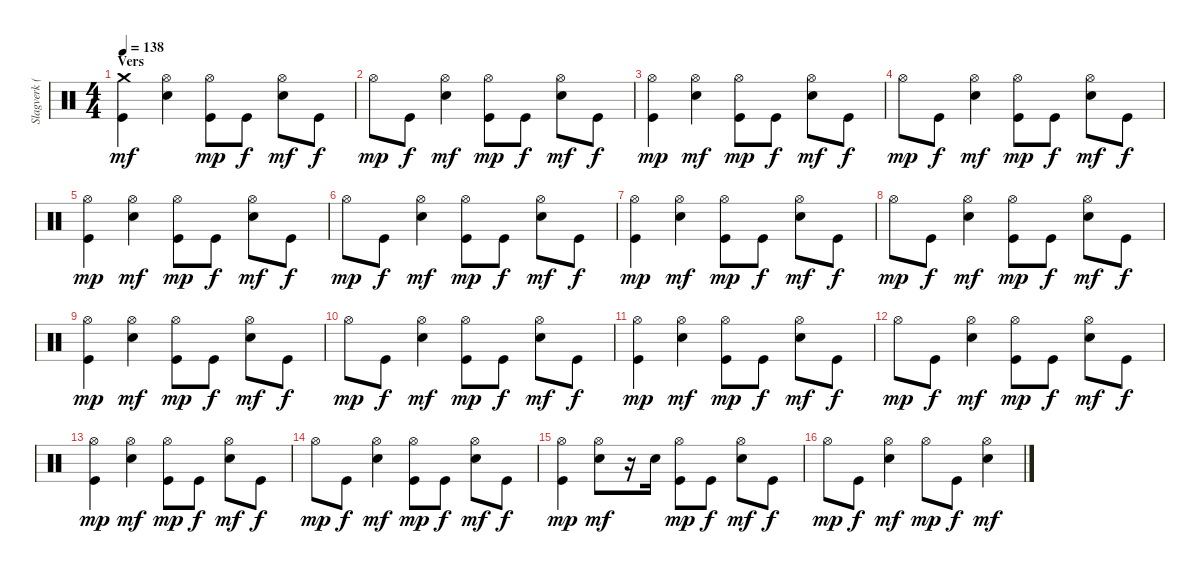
\track ("Slagverk (Jan Kristiansen)" "Slagverk (") {instrument percussion}
\staff {score}
\articulation defaults
\ts (4 4)
\section ("" "Vers")
\tempo 138
\clef neutral
\ks c
("Crash medium (hit)" "Kick (hit)").4{dy mf} ("Hi-Hat (open)" "Snare (hit) 2").4 ("Hi-Hat (open)" "Kick (hit)").8{dy mp} "Kick (hit)".8{dy f} ("Hi-Hat (open)" "Snare (hit) 2").8{dy mf} "Kick (hit)".8{dy f} |
"Hi-Hat (open)".8{dy mp} "Kick (hit)".8{dy f} ("Hi-Hat (open)" "Snare (hit) 2").4{dy mf} ("Hi-Hat (open)" "Kick (hit)").8{dy mp} "Kick (hit)".8{dy f} ("Hi-Hat (open)" "Snare (hit) 2").8{dy mf} "Kick (hit)".8{dy f} |
("Hi-Hat (open)" "Kick (hit)").4{dy mp} ("Hi-Hat (open)" "Snare (hit) 2").4{dy mf} ("Hi-Hat (open)" "Kick (hit)").8{dy mp} "Kick (hit)".8{dy f} ("Hi-Hat (open)" "Snare (hit) 2").8{dy mf} "Kick (hit)".8{dy f} |
"Hi-Hat (open)".8{dy mp} "Kick (hit)".8{dy f} ("Hi-Hat (open)" "Snare (hit) 2").4{dy mf} ("Hi-Hat (open)" "Kick (hit)").8{dy mp} "Kick (hit)".8{dy f} ("Hi-Hat (open)" "Snare (hit) 2").8{dy mf} "Kick (hit)".8{dy f} |
("Hi-Hat (open)" "Kick (hit)").4{dy mp} ("Hi-Hat (open)" "Snare (hit) 2").4{dy mf} ("Hi-Hat (open)" "Kick (hit)").8{dy mp} "Kick (hit)".8{dy f} ("Hi-Hat (open)" "Snare (hit) 2").8{dy mf} "Kick (hit)".8{dy f} |
"Hi-Hat (open)".8{dy mp} "Kick (hit)".8{dy f} ("Hi-Hat (open)" "Snare (hit) 2").4{dy mf} ("Hi-Hat (open)" "Kick (hit)").8{dy mp} "Kick (hit)".8{dy f} ("Hi-Hat (open)" "Snare (hit) 2").8{dy mf} "Kick (hit)".8{dy f} |
("Hi-Hat (open)" "Kick (hit)").4{dy mp} ("Hi-Hat (open)" "Snare (hit) 2").4{dy mf} ("Hi-Hat (open)" "Kick (hit)").8{dy mp} "Kick (hit)".8{dy f} ("Hi-Hat (open)" "Snare (hit) 2").8{dy mf} "Kick (hit)".8{dy f} |
"Hi-Hat (open)".8{dy mp} "Kick (hit)".8{dy f} ("Hi-Hat (open)" "Snare (hit) 2").4{dy mf} ("Hi-Hat (open)" "Kick (hit)").8{dy mp} "Kick (hit)".8{dy f} ("Hi-Hat (open)" "Snare (hit) 2").8{dy mf} "Kick (hit)".8{dy f} |
("Hi-Hat (open)" "Kick (hit)").4{dy mp} ("Hi-Hat (open)" "Snare (hit) 2").4{dy mf} ("Hi-Hat (open)" "Kick (hit)").8{dy mp} "Kick (hit)".8{dy f} ("Hi-Hat (open)" "Snare (hit) 2").8{dy mf} "Kick (hit)".8{dy f} |
"Hi-Hat (open)".8{dy mp} "Kick (hit)".8{dy f} ("Hi-Hat (open)" "Snare (hit) 2").4{dy mf} ("Hi-Hat (open)" "Kick (hit)").8{dy mp} "Kick (hit)".8{dy f} ("Hi-Hat (open)" "Snare (hit) 2").8{dy mf} "Kick (hit)".8{dy f} |
("Hi-Hat (open)" "Kick (hit)").4{dy mp} ("Hi-Hat (open)" "Snare (hit) 2").4{dy mf} ("Hi-Hat (open)" "Kick (hit)").8{dy mp} "Kick (hit)".8{dy f} ("Hi-Hat (open)" "Snare (hit) 2").8{dy mf} "Kick (hit)".8{dy f} |
"Hi-Hat (open)".8{dy mp} "Kick (hit)".8{dy f} ("Hi-Hat (open)" "Snare (hit) 2").4{dy mf} ("Hi-Hat (open)" "Kick (hit)").8{dy mp} "Kick (hit)".8{dy f} ("Hi-Hat (open)" "Snare (hit) 2").8{dy mf} "Kick (hit)".8{dy f} |
("Hi-Hat (open)" "Kick (hit)").4{dy mp} ("Hi-Hat (open)" "Snare (hit) 2").4{dy mf} ("Hi-Hat (open)" "Kick (hit)").8{dy mp} "Kick (hit)".8{dy f} ("Hi-Hat (open)" "Snare (hit) 2").8{dy mf} "Kick (hit)".8{dy f} |
"Hi-Hat (open)".8{dy mp} "Kick (hit)".8{dy f} ("Hi-Hat (open)" "Snare (hit) 2").4{dy mf} ("Hi-Hat (open)" "Kick (hit)").8{dy mp} "Kick (hit)".8{dy f} ("Hi-Hat (open)" "Snare (hit) 2").8{dy mf} "Kick (hit)".8{dy f} |
("Hi-Hat (open)" "Kick (hit)").4{dy mp} ("Hi-Hat (open)" "Snare (hit) 2").8{dy mf} r.16 "Snare (hit) 2".16 ("Hi-Hat (open)" "Kick (hit)").8{dy mp} "Kick (hit)".8{dy f} ("Hi-Hat (open)" "Snare (hit) 2").8{dy mf} "Kick (hit)".8{dy f} |
"Hi-Hat (open)".8{dy mp} "Kick (hit)".8{dy f} ("Hi-Hat (open)" "Snare (hit) 2").4{dy mf} "Hi-Hat (open)".8{dy mp} "Kick (hit)".8{dy f} ("Hi-Hat (open)" "Snare (hit) 2").4{dy mf}
